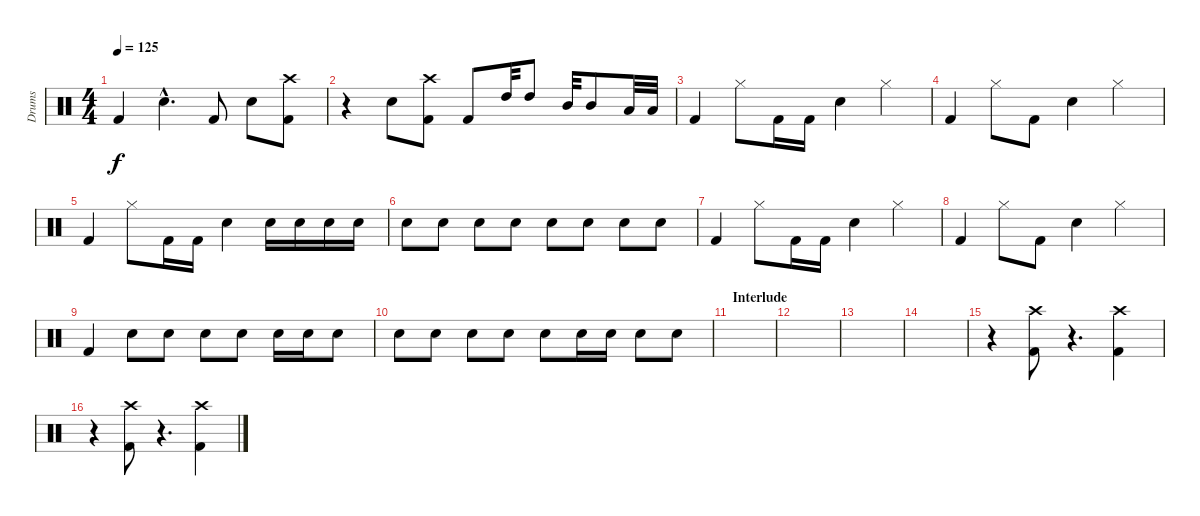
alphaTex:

\track ("Drums" "Drums") {instrument percussion}
\staff {score}
\articulation defaults
\ts (4 4)
\tempo 125
\clef neutral
\ks c "Kick (hit) 2".4{dy f} "Snare (hit) 2"{hac}.4{d} "Kick (hit) 2".8 "Snare (hit) 2".8
("Crash high (hit)" "Kick (hit) 2").8 |
r.4 "Snare (hit) 2".8 ("Kick (hit) 2" "Crash high (hit)").8 "Kick (hit) 2".8 "High Tom (hit)".32 "High Tom (hit)".8 "Mid Tom (hit)".32 "Mid Tom (hit)".8 "Low Tom (hit)".32 "Low Tom (hit)".32 |
"Kick (hit) 2".4 "Hi-Hat (closed)".8 "Kick (hit) 2".16 "Kick (hit) 2".16 "Snare (hit) 2".4 "Hi-Hat (closed)".4 |
"Kick (hit) 2".4 "Hi-Hat (closed)".8 "Kick (hit) 2".8 "Snare (hit) 2".4 "Hi-Hat (closed)".4 |
"Kick (hit) 2".4 "Hi-Hat (closed)".8 "Kick (hit) 2".16 "Kick (hit) 2".16 "Snare (hit) 2".4 "Snare (hit) 2".16 "Snare (hit) 2".16 "Snare (hit) 2".16 "Snare (hit) 2".16 |
"Snare (hit) 2".8 "Snare (hit) 2".8 "Snare (hit) 2".8 "Snare (hit) 2".8 "Snare (hit) 2".8 "Snare (hit) 2".8 "Snare (hit) 2".8 "Snare (hit) 2".8 |
"Kick (hit) 2".4 "Hi-Hat (closed)".8 "Kick (hit) 2".16 "Kick (hit) 2".16 "Snare (hit) 2".4 "Hi-Hat (closed)".4 |
"Kick (hit) 2".4 "Hi-Hat (closed)".8 "Kick (hit) 2".8 "Snare (hit) 2".4 "Hi-Hat (closed)".4 |
"Kick (hit) 2".4 "Snare (hit) 2".8 "Snare (hit) 2".8 "Snare (hit) 2".8 "Snare (hit) 2".8 "Snare (hit) 2".16 "Snare (hit) 2".16 "Snare (hit) 2".8 |
"Snare (hit) 2".8 "Snare (hit) 2".8 "Snare (hit) 2".8 "Snare (hit) 2".8 "Snare (hit) 2".8 "Snare (hit) 2".16 "Snare (hit) 2".16 "Snare (hit) 2".8 "Snare (hit) 2".8 |
\section ("" "Interlude")
|
|
|
|
r.4 ("Crash high (hit)" "Kick (hit) 2").8 r.4{d} ("Crash high (hit)" "Kick (hit) 2").4 |
r.4 ("Crash high (hit)" "Kick (hit) 2").8 r.4{d} ("Crash high (hit)" "Kick (hit) 2").4
